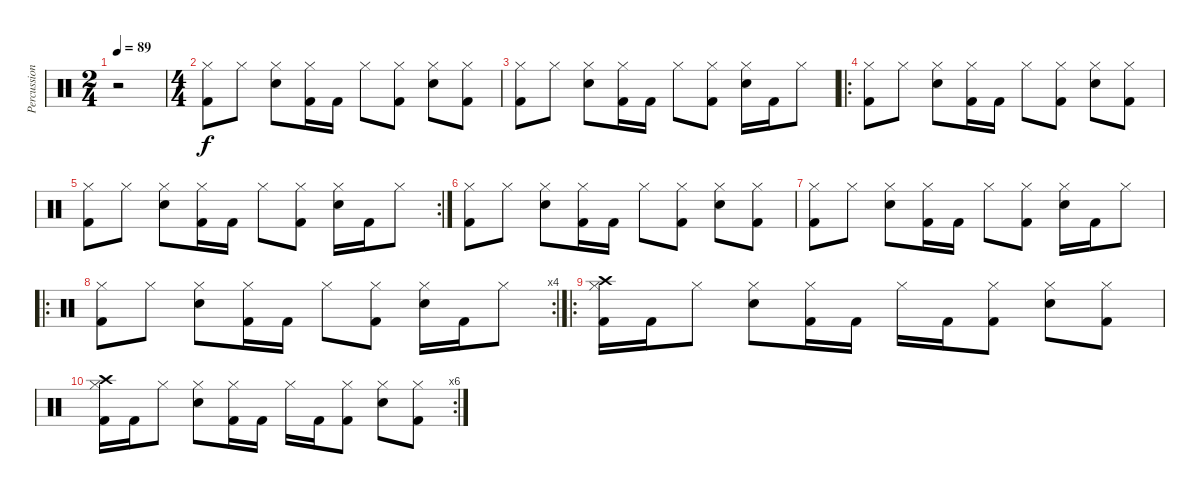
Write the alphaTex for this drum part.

\track ("Percussion" "Percussion") {instrument percussion}
\staff {score}
\articulation defaults
\ts (2 4)
\tempo 89
\clef neutral
\ks c
r.2{dy f} |
\ts (4 4)
("Hi-Hat (closed)" "Kick (hit) 2").8 "Hi-Hat (closed)".8 ("Hi-Hat (closed)" "Electric Snare (hit)").8 ("Hi-Hat (closed)" "Kick (hit) 2").16 "Kick (hit) 2".16 "Hi-Hat (closed)".8 ("Hi-Hat (closed)" "Kick (hit) 2").8 ("Hi-Hat (closed)" "Electric Snare (hit)").8 ("Hi-Hat (closed)" "Kick (hit) 2").8 |
("Hi-Hat (closed)" "Kick (hit) 2").8 "Hi-Hat (closed)".8 ("Hi-Hat (closed)" "Electric Snare (hit)").8 ("Hi-Hat (closed)" "Kick (hit) 2").16 "Kick (hit) 2".16 "Hi-Hat (closed)".8 ("Hi-Hat (closed)" "Kick (hit) 2").8 ("Hi-Hat (closed)" "Electric Snare (hit)").16 "Kick (hit) 2".16 "Hi-Hat (closed)".8 |
\ro
("Hi-Hat (closed)" "Kick (hit) 2").8 "Hi-Hat (closed)".8 ("Hi-Hat (closed)" "Electric Snare (hit)").8 ("Hi-Hat (closed)" "Kick (hit) 2").16 "Kick (hit) 2".16 "Hi-Hat (closed)".8 ("Hi-Hat (closed)" "Kick (hit) 2").8 ("Hi-Hat (closed)" "Electric Snare (hit)").8 ("Hi-Hat (closed)" "Kick (hit) 2").8 |
\rc 2
("Hi-Hat (closed)" "Kick (hit) 2").8 "Hi-Hat (closed)".8 ("Hi-Hat (closed)" "Electric Snare (hit)").8 ("Hi-Hat (closed)" "Kick (hit) 2").16 "Kick (hit) 2".16 "Hi-Hat (closed)".8 ("Hi-Hat (closed)" "Kick (hit) 2").8 ("Hi-Hat (closed)" "Electric Snare (hit)").16 "Kick (hit) 2".16 "Hi-Hat (closed)".8 |
("Hi-Hat (closed)" "Kick (hit) 2").8 "Hi-Hat (closed)".8 ("Hi-Hat (closed)" "Electric Snare (hit)").8 ("Hi-Hat (closed)" "Kick (hit) 2").16 "Kick (hit) 2".16 "Hi-Hat (closed)".8 ("Hi-Hat (closed)" "Kick (hit) 2").8 ("Hi-Hat (closed)" "Electric Snare (hit)").8 ("Hi-Hat (closed)" "Kick (hit) 2").8 |
("Hi-Hat (closed)" "Kick (hit) 2").8 "Hi-Hat (closed)".8 ("Hi-Hat (closed)" "Electric Snare (hit)").8 ("Hi-Hat (closed)" "Kick (hit) 2").16 "Kick (hit) 2".16 "Hi-Hat (closed)".8 ("Hi-Hat (closed)" "Kick (hit) 2").8 ("Hi-Hat (closed)" "Electric Snare (hit)").16 "Kick (hit) 2".16 "Hi-Hat (closed)".8 |
\ro
\rc 4
("Hi-Hat (closed)" "Kick (hit) 2").8 "Hi-Hat (closed)".8 ("Hi-Hat (closed)" "Electric Snare (hit)").8 ("Hi-Hat (closed)" "Kick (hit) 2").16 "Kick (hit) 2".16 "Hi-Hat (closed)".8 ("Hi-Hat (closed)" "Kick (hit) 2").8 ("Hi-Hat (closed)" "Electric Snare (hit)").16 "Kick (hit) 2".16 "Hi-Hat (closed)".8 |
\ro
("Crash high (hit)" "Hi-Hat (closed)" "Kick (hit) 2").16 "Kick (hit) 2".16 "Hi-Hat (closed)".8 ("Hi-Hat (closed)" "Snare (hit) 2").8 ("Hi-Hat (closed)" "Kick (hit) 2").16 "Kick (hit) 2".16 "Hi-Hat (closed)".16 "Kick (hit) 2".16 ("Hi-Hat (closed)" "Kick (hit) 2").8 ("Hi-Hat (closed)" "Snare (hit) 2").8 ("Hi-Hat (closed)" "Kick (hit) 2").8 |
\rc 6
("Crash high (hit)" "Hi-Hat (closed)" "Kick (hit) 2").16 "Kick (hit) 2".16 "Hi-Hat (closed)".8 ("Hi-Hat (closed)" "Snare (hit) 2").8 ("Hi-Hat (closed)" "Kick (hit) 2").16 "Kick (hit) 2".16 "Hi-Hat (closed)".16 "Kick (hit) 2".16 ("Hi-Hat (closed)" "Kick (hit) 2").8 ("Hi-Hat (closed)" "Snare (hit) 2").8 ("Hi-Hat (closed)" "Kick (hit) 2").8
